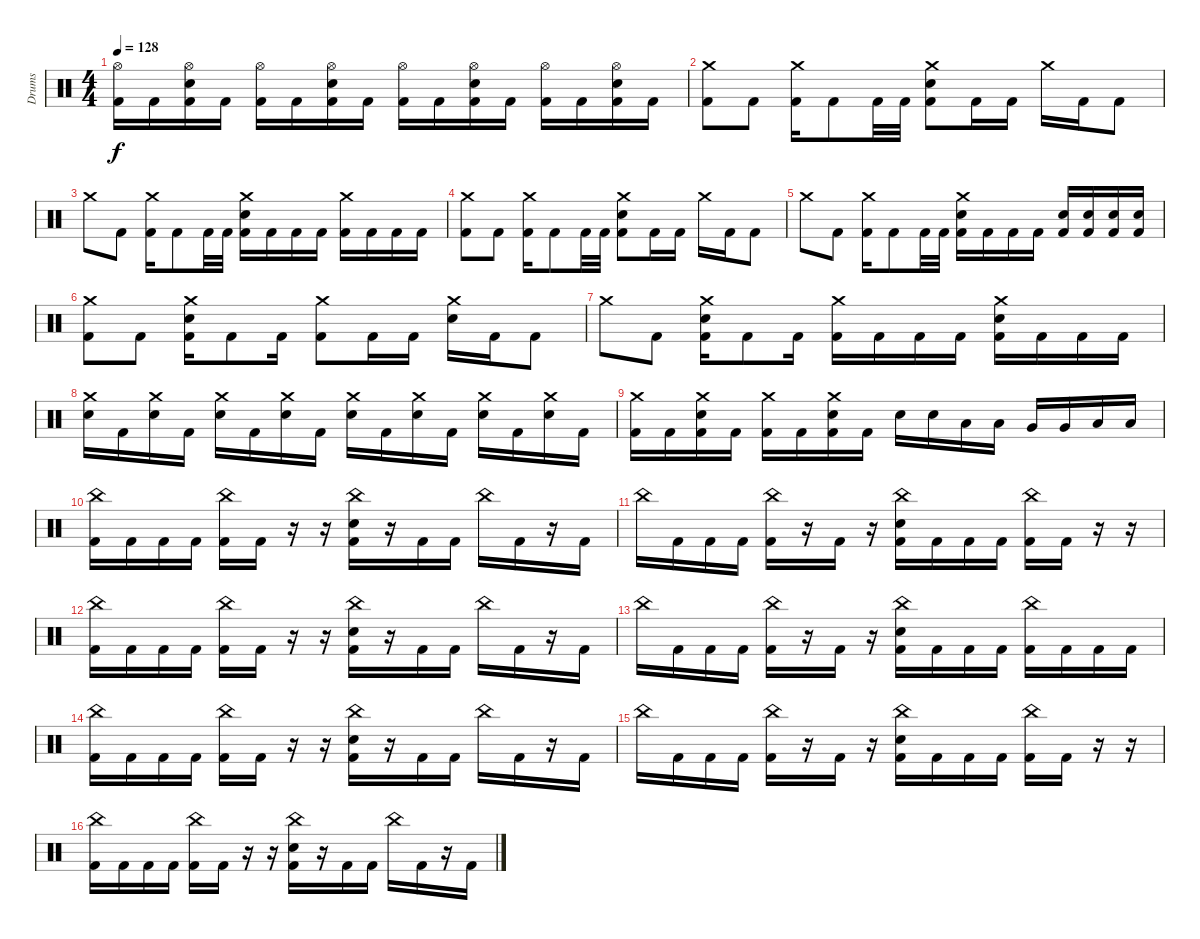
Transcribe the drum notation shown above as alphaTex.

\track ("Drums" "Drums") {instrument percussion}
\staff {score}
\articulation defaults
\ts (4 4)
\tempo 128
\clef neutral
\ks c
("Hi-Hat (open)" "Kick (hit) 2").16{dy f} "Kick (hit) 2".16 ("Hi-Hat (open)" "Electric Snare (hit)" "Kick (hit) 2").16 "Kick (hit) 2".16 ("Hi-Hat (open)" "Kick (hit) 2").16 "Kick (hit) 2".16 ("Hi-Hat (open)" "Electric Snare (hit)" "Kick (hit) 2").16 "Kick (hit) 2".16 ("Hi-Hat (open)" "Kick (hit) 2").16 "Kick (hit) 2".16 ("Hi-Hat (open)" "Electric Snare (hit)" "Kick (hit) 2").16 "Kick (hit) 2".16 ("Hi-Hat (open)" "Kick (hit) 2").16 "Kick (hit) 2".16 ("Hi-Hat (open)" "Electric Snare (hit)" "Kick (hit) 2").16 "Kick (hit) 2".16 |
("Crash medium (hit)" "Kick (hit) 2").8 "Kick (hit) 2".8 ("Crash medium (hit)" "Kick (hit) 2").16 "Kick (hit) 2".8 "Kick (hit) 2".32 "Kick (hit) 2".32 ("Crash medium (hit)" "Electric Snare (hit)" "Kick (hit) 2").8 "Kick (hit) 2".16 "Kick (hit) 2".16 "Crash medium (hit)".16 "Kick (hit) 2".16 "Kick (hit) 2".8 |
"Crash medium (hit)".8 "Kick (hit) 2".8 ("Crash medium (hit)" "Kick (hit) 2").16 "Kick (hit) 2".8 "Kick (hit) 2".32 "Kick (hit) 2".32 ("Crash medium (hit)" "Electric Snare (hit)" "Kick (hit) 2").16 "Kick (hit) 2".16 "Kick (hit) 2".16 "Kick (hit) 2".16 ("Crash medium (hit)" "Kick (hit) 2").16 "Kick (hit) 2".16 "Kick (hit) 2".16 "Kick (hit) 2".16 |
("Crash medium (hit)" "Kick (hit) 2").8 "Kick (hit) 2".8 ("Crash medium (hit)" "Kick (hit) 2").16 "Kick (hit) 2".8 "Kick (hit) 2".32 "Kick (hit) 2".32 ("Crash medium (hit)" "Electric Snare (hit)" "Kick (hit) 2").8 "Kick (hit) 2".16 "Kick (hit) 2".16 "Crash medium (hit)".16 "Kick (hit) 2".16 "Kick (hit) 2".8 |
"Crash medium (hit)".8 "Kick (hit) 2".8 ("Crash medium (hit)" "Kick (hit) 2").16 "Kick (hit) 2".8 "Kick (hit) 2".32 "Kick (hit) 2".32 ("Crash medium (hit)" "Electric Snare (hit)" "Kick (hit) 2").16 "Kick (hit) 2".16 "Kick (hit) 2".16 "Kick (hit) 2".16 ("Electric Snare (hit)" "Kick (hit) 2").16 ("Electric Snare (hit)" "Kick (hit) 2").16 ("Electric Snare (hit)" "Kick (hit) 2").16 ("Electric Snare (hit)" "Kick (hit) 2").16 |
("Crash medium (hit)" "Kick (hit) 2").8 "Kick (hit) 2".8 ("Crash medium (hit)" "Electric Snare (hit)" "Kick (hit) 2").16 "Kick (hit) 2".8 "Kick (hit) 2".16 ("Crash medium (hit)" "Kick (hit) 2").8 "Kick (hit) 2".16 "Kick (hit) 2".16 ("Crash medium (hit)" "Electric Snare (hit)").16 "Kick (hit) 2".16 "Kick (hit) 2".8 |
"Crash medium (hit)".8 "Kick (hit) 2".8 ("Crash medium (hit)" "Electric Snare (hit)" "Kick (hit) 2").16 "Kick (hit) 2".8 "Kick (hit) 2".16 ("Crash medium (hit)" "Kick (hit) 2").16 "Kick (hit) 2".16 "Kick (hit) 2".16 "Kick (hit) 2".16 ("Crash medium (hit)" "Electric Snare (hit)" "Kick (hit) 2").16 "Kick (hit) 2".16 "Kick (hit) 2".16 "Kick (hit) 2".16 |
("Crash medium (hit)" "Electric Snare (hit)").16 "Kick (hit) 2".16 ("Crash medium (hit)" "Electric Snare (hit)").16 "Kick (hit) 2".16 ("Crash medium (hit)" "Electric Snare (hit)").16 "Kick (hit) 2".16 ("Crash medium (hit)" "Electric Snare (hit)").16 "Kick (hit) 2".16 ("Crash medium (hit)" "Electric Snare (hit)").16 "Kick (hit) 2".16 ("Crash medium (hit)" "Electric Snare (hit)").16 "Kick (hit) 2".16 ("Crash medium (hit)" "Electric Snare (hit)").16 "Kick (hit) 2".16 ("Crash medium (hit)" "Electric Snare (hit)").16 "Kick (hit) 2".16 |
("Crash medium (hit)" "Kick (hit) 2").16 "Kick (hit) 2".16 ("Crash medium (hit)" "Electric Snare (hit)" "Kick (hit) 2").16 "Kick (hit) 2".16 ("Crash medium (hit)" "Kick (hit) 2").16 "Kick (hit) 2".16 ("Crash medium (hit)" "Electric Snare (hit)" "Kick (hit) 2").16 "Kick (hit) 2".16 "Electric Snare (hit)".16 "Electric Snare (hit)".16 "Low Tom (hit)".16 "Low Tom (hit)".16 "Very Low Tom (hit)".16 "Very Low Tom (hit)".16 "Low Floor Tom (hit)".16 "Low Floor Tom (hit)".16 |
("China (hit)" "Kick (hit) 2").16 "Kick (hit) 2".16 "Kick (hit) 2".16 "Kick (hit) 2".16 ("China (hit)" "Kick (hit) 2").16 "Kick (hit) 2".16 r.16 r.16 ("China (hit)" "Electric Snare (hit)" "Kick (hit) 2").16 r.16 "Kick (hit) 2".16 "Kick (hit) 2".16 "China (hit)".16 "Kick (hit) 2".16 r.16 "Kick (hit) 2".16 |
"China (hit)".16 "Kick (hit) 2".16 "Kick (hit) 2".16 "Kick (hit) 2".16 ("China (hit)" "Kick (hit) 2").16 r.16 "Kick (hit) 2".16 r.16 ("China (hit)" "Electric Snare (hit)" "Kick (hit) 2").16 "Kick (hit) 2".16 "Kick (hit) 2".16 "Kick (hit) 2".16 ("China (hit)" "Kick (hit) 2").16 "Kick (hit) 2".16 r.16 r.16 |
("China (hit)" "Kick (hit) 2").16 "Kick (hit) 2".16 "Kick (hit) 2".16 "Kick (hit) 2".16 ("China (hit)" "Kick (hit) 2").16 "Kick (hit) 2".16 r.16 r.16 ("China (hit)" "Electric Snare (hit)" "Kick (hit) 2").16 r.16 "Kick (hit) 2".16 "Kick (hit) 2".16 "China (hit)".16 "Kick (hit) 2".16 r.16 "Kick (hit) 2".16 |
"China (hit)".16 "Kick (hit) 2".16 "Kick (hit) 2".16 "Kick (hit) 2".16 ("China (hit)" "Kick (hit) 2").16 r.16 "Kick (hit) 2".16 r.16 ("China (hit)" "Electric Snare (hit)" "Kick (hit) 2").16 "Kick (hit) 2".16 "Kick (hit) 2".16 "Kick (hit) 2".16 ("China (hit)" "Kick (hit) 2").16 "Kick (hit) 2".16 "Kick (hit) 2".16 "Kick (hit) 2".16 |
("China (hit)" "Kick (hit) 2").16 "Kick (hit) 2".16 "Kick (hit) 2".16 "Kick (hit) 2".16 ("China (hit)" "Kick (hit) 2").16 "Kick (hit) 2".16 r.16 r.16 ("China (hit)" "Electric Snare (hit)" "Kick (hit) 2").16 r.16 "Kick (hit) 2".16 "Kick (hit) 2".16 "China (hit)".16 "Kick (hit) 2".16 r.16 "Kick (hit) 2".16 |
"China (hit)".16 "Kick (hit) 2".16 "Kick (hit) 2".16 "Kick (hit) 2".16 ("China (hit)" "Kick (hit) 2").16 r.16 "Kick (hit) 2".16 r.16 ("China (hit)" "Electric Snare (hit)" "Kick (hit) 2").16 "Kick (hit) 2".16 "Kick (hit) 2".16 "Kick (hit) 2".16 ("China (hit)" "Kick (hit) 2").16 "Kick (hit) 2".16 r.16 r.16 |
("China (hit)" "Kick (hit) 2").16 "Kick (hit) 2".16 "Kick (hit) 2".16 "Kick (hit) 2".16 ("China (hit)" "Kick (hit) 2").16 "Kick (hit) 2".16 r.16 r.16 ("China (hit)" "Electric Snare (hit)" "Kick (hit) 2").16 r.16 "Kick (hit) 2".16 "Kick (hit) 2".16 "China (hit)".16 "Kick (hit) 2".16 r.16 "Kick (hit) 2".16
